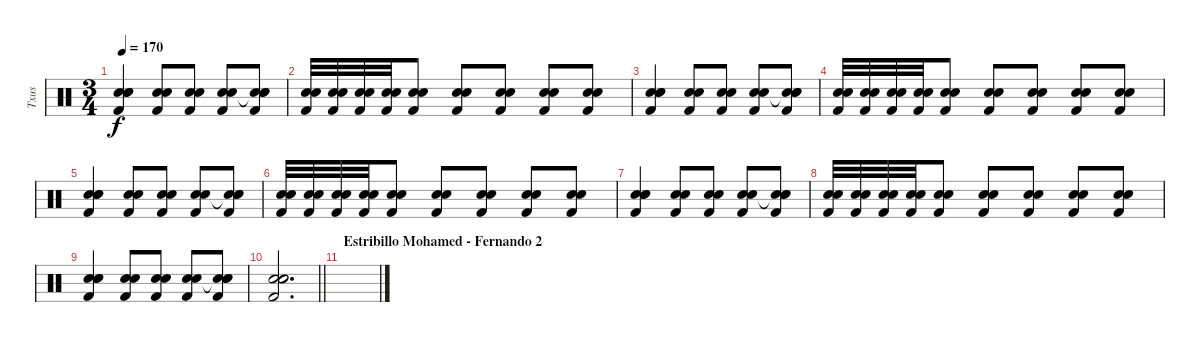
\track ("Txus" "Txus") {instrument percussion}
\staff {score}
\articulation defaults
\ts (3 4)
\tempo 170
\clef neutral
\ks c
("Electric Snare (hit)" "Snare (hit) 2" "Hand Clap (hit)" "Kick (hit) 2").4{dy f} ("Snare (hit) 2" "Hand Clap (hit)" "Kick (hit) 2").8 ("Snare (hit) 2" "Hand Clap (hit)" "Kick (hit) 2").8 ("Snare (hit) 2" "Hand Clap (hit)" "Kick (hit) 2").8 ("Snare (hit)"{t} "Snare (hit) 2" "Hand Clap (hit)" "Kick (hit) 2").8 |
("Snare (hit) 2" "Hand Clap (hit)" "Kick (hit) 2").32 ("Snare (hit) 2" "Hand Clap (hit)" "Kick (hit) 2").32 ("Snare (hit) 2" "Hand Clap (hit)" "Kick (hit) 2").32 ("Snare (hit) 2" "Hand Clap (hit)" "Kick (hit) 2").32 ("Snare (hit) 2" "Hand Clap (hit)" "Kick (hit) 2").8 ("Snare (hit) 2" "Hand Clap (hit)" "Kick (hit) 2").8 ("Snare (hit) 2" "Hand Clap (hit)" "Kick (hit) 2").8 ("Snare (hit) 2" "Hand Clap (hit)" "Kick (hit) 2").8 ("Snare (hit) 2" "Hand Clap (hit)" "Kick (hit) 2").8 |
("Electric Snare (hit)" "Snare (hit) 2" "Hand Clap (hit)" "Kick (hit) 2").4 ("Snare (hit) 2" "Hand Clap (hit)" "Kick (hit) 2").8 ("Snare (hit) 2" "Hand Clap (hit)" "Kick (hit) 2").8 ("Snare (hit) 2" "Hand Clap (hit)" "Kick (hit) 2").8 ("Snare (hit)"{t} "Snare (hit) 2" "Hand Clap (hit)" "Kick (hit) 2").8 |
("Snare (hit) 2" "Hand Clap (hit)" "Kick (hit) 2").32 ("Snare (hit) 2" "Hand Clap (hit)" "Kick (hit) 2").32 ("Snare (hit) 2" "Hand Clap (hit)" "Kick (hit) 2").32 ("Snare (hit) 2" "Hand Clap (hit)" "Kick (hit) 2").32 ("Snare (hit) 2" "Hand Clap (hit)" "Kick (hit) 2").8 ("Snare (hit) 2" "Hand Clap (hit)" "Kick (hit) 2").8 ("Snare (hit) 2" "Hand Clap (hit)" "Kick (hit) 2").8 ("Snare (hit) 2" "Hand Clap (hit)" "Kick (hit) 2").8 ("Snare (hit) 2" "Hand Clap (hit)" "Kick (hit) 2").8 |
("Electric Snare (hit)" "Snare (hit) 2" "Hand Clap (hit)" "Kick (hit) 2").4 ("Snare (hit) 2" "Hand Clap (hit)" "Kick (hit) 2").8 ("Snare (hit) 2" "Hand Clap (hit)" "Kick (hit) 2").8 ("Snare (hit) 2" "Hand Clap (hit)" "Kick (hit) 2").8 ("Snare (hit)"{t} "Snare (hit) 2" "Hand Clap (hit)" "Kick (hit) 2").8 |
("Snare (hit) 2" "Hand Clap (hit)" "Kick (hit) 2").32 ("Snare (hit) 2" "Hand Clap (hit)" "Kick (hit) 2").32 ("Snare (hit) 2" "Hand Clap (hit)" "Kick (hit) 2").32 ("Snare (hit) 2" "Hand Clap (hit)" "Kick (hit) 2").32 ("Snare (hit) 2" "Hand Clap (hit)" "Kick (hit) 2").8 ("Snare (hit) 2" "Hand Clap (hit)" "Kick (hit) 2").8 ("Snare (hit) 2" "Hand Clap (hit)" "Kick (hit) 2").8 ("Snare (hit) 2" "Hand Clap (hit)" "Kick (hit) 2").8 ("Snare (hit) 2" "Hand Clap (hit)" "Kick (hit) 2").8 |
("Electric Snare (hit)" "Snare (hit) 2" "Hand Clap (hit)" "Kick (hit) 2").4 ("Snare (hit) 2" "Hand Clap (hit)" "Kick (hit) 2").8 ("Snare (hit) 2" "Hand Clap (hit)" "Kick (hit) 2").8 ("Snare (hit) 2" "Hand Clap (hit)" "Kick (hit) 2").8 ("Snare (hit)"{t} "Snare (hit) 2" "Hand Clap (hit)" "Kick (hit) 2").8 |
("Snare (hit) 2" "Hand Clap (hit)" "Kick (hit) 2").32 ("Snare (hit) 2" "Hand Clap (hit)" "Kick (hit) 2").32 ("Snare (hit) 2" "Hand Clap (hit)" "Kick (hit) 2").32 ("Snare (hit) 2" "Hand Clap (hit)" "Kick (hit) 2").32 ("Snare (hit) 2" "Hand Clap (hit)" "Kick (hit) 2").8 ("Snare (hit) 2" "Hand Clap (hit)" "Kick (hit) 2").8 ("Snare (hit) 2" "Hand Clap (hit)" "Kick (hit) 2").8 ("Snare (hit) 2" "Hand Clap (hit)" "Kick (hit) 2").8 ("Snare (hit) 2" "Hand Clap (hit)" "Kick (hit) 2").8 |
("Electric Snare (hit)" "Snare (hit) 2" "Hand Clap (hit)" "Kick (hit) 2").4 ("Snare (hit) 2" "Hand Clap (hit)" "Kick (hit) 2").8 ("Snare (hit) 2" "Hand Clap (hit)" "Kick (hit) 2").8 ("Snare (hit) 2" "Hand Clap (hit)" "Kick (hit) 2").8 ("Snare (hit)"{t} "Snare (hit) 2" "Hand Clap (hit)" "Kick (hit) 2").8 |
\barLineRight lightlight
("Electric Snare (hit)" "Snare (hit) 2" "Hand Clap (hit)" "Kick (hit) 2").2{d} |
\section ("" "Estribillo Mohamed - Fernando 2")
